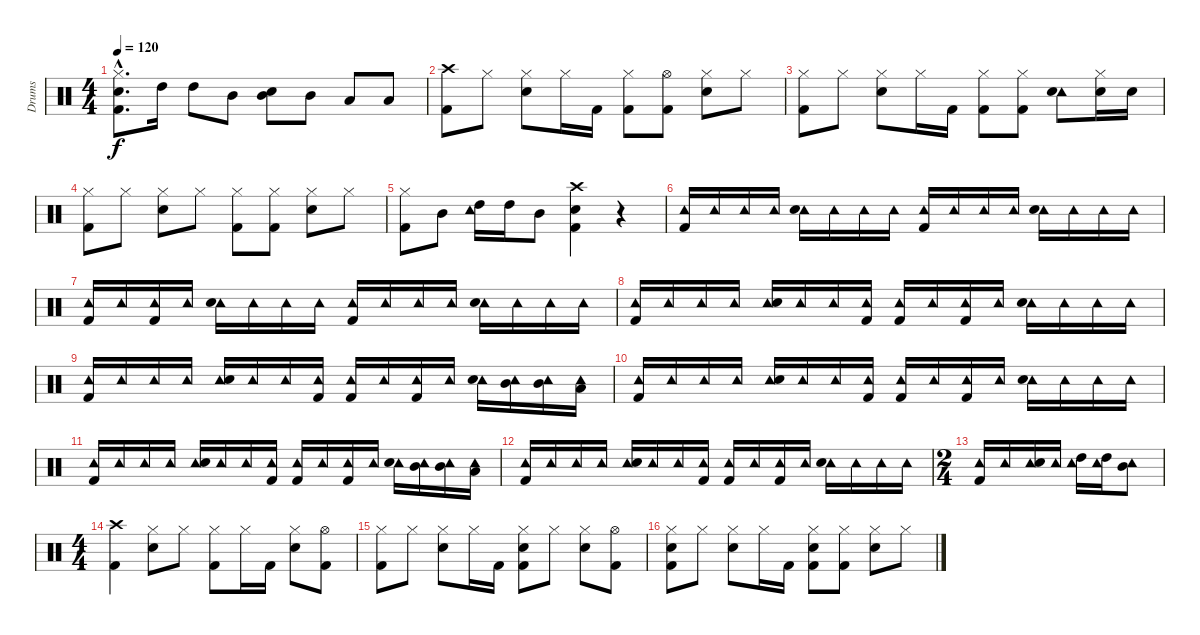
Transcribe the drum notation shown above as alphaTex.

\track ("Drums" "Drums") {instrument percussion}
\staff {score}
\articulation defaults
\ts (4 4)
\tempo 120
\clef neutral
\ks c
("Hi-Hat (closed)"{hac} "Snare (hit) 2"{hac} "Kick (hit) 2"{hac}).8{d dy f} "High Tom (hit)".16 "High Tom (hit)".8 "Mid Tom (hit)".8 ("Mid Tom (hit)" "Snare (hit) 2").8 "Mid Tom (hit)".8 "Low Tom (hit)".8 "Low Tom (hit)".8 |
("Crash high (hit)" "Kick (hit) 2").8 "Hi-Hat (closed)".8 ("Hi-Hat (closed)" "Snare (hit) 2").8 "Hi-Hat (closed)".16 "Kick (hit) 2".16 ("Hi-Hat (closed)" "Kick (hit) 2").8 ("Hi-Hat (open)" "Kick (hit) 2").8 ("Hi-Hat (closed)" "Snare (hit) 2").8 "Hi-Hat (closed)".8 |
("Hi-Hat (closed)" "Kick (hit) 2").8 "Hi-Hat (closed)".8 ("Hi-Hat (closed)" "Snare (hit) 2").8 "Hi-Hat (closed)".16 "Kick (hit) 2".16 ("Hi-Hat (closed)" "Kick (hit) 2").8 ("Hi-Hat (closed)" "Kick (hit) 2").8 ("Tambourine (hit)" "Snare (hit) 2").8 ("Hi-Hat (closed)" "Snare (hit) 2").16 "Snare (hit) 2".16 |
("Hi-Hat (closed)" "Kick (hit) 2").8 "Hi-Hat (closed)".8 ("Hi-Hat (closed)" "Snare (hit) 2").8 "Hi-Hat (closed)".8 ("Hi-Hat (closed)" "Kick (hit) 2").8 ("Hi-Hat (closed)" "Kick (hit) 2").8 ("Hi-Hat (closed)" "Snare (hit) 2").8 "Hi-Hat (closed)".8 |
("Hi-Hat (closed)" "Kick (hit) 2").8 "Mid Tom (hit)".8 ("Tambourine (hit)" "High Tom (hit)").16 "High Tom (hit)".16 "Mid Tom (hit)".8 ("Crash high (hit)" "Snare (hit) 2" "Kick (hit) 2").4 r.4 |
("Tambourine (hit)" "Kick (hit) 2").16 "Tambourine (hit)".16 "Tambourine (hit)".16 "Tambourine (hit)".16 ("Tambourine (hit)" "Snare (hit) 2").16 "Tambourine (hit)".16 "Tambourine (hit)".16 "Tambourine (hit)".16 ("Tambourine (hit)" "Kick (hit) 2").16 "Tambourine (hit)".16 "Tambourine (hit)".16 "Tambourine (hit)".16 ("Tambourine (hit)" "Snare (hit) 2").16 "Tambourine (hit)".16 "Tambourine (hit)".16 "Tambourine (hit)".16 |
("Tambourine (hit)" "Kick (hit) 2").16 "Tambourine (hit)".16 ("Tambourine (hit)" "Kick (hit) 2").16 "Tambourine (hit)".16 ("Tambourine (hit)" "Snare (hit) 2").16 "Tambourine (hit)".16 "Tambourine (hit)".16 "Tambourine (hit)".16 ("Tambourine (hit)" "Kick (hit) 2").16 "Tambourine (hit)".16 "Tambourine (hit)".16 "Tambourine (hit)".16 ("Tambourine (hit)" "Snare (hit) 2").16 "Tambourine (hit)".16 "Tambourine (hit)".16 "Tambourine (hit)".16 |
("Tambourine (hit)" "Kick (hit) 2").16 "Tambourine (hit)".16 "Tambourine (hit)".16 "Tambourine (hit)".16 ("Tambourine (hit)" "Snare (hit) 2").16 "Tambourine (hit)".16 "Tambourine (hit)".16 ("Tambourine (hit)" "Kick (hit) 2").16 ("Tambourine (hit)" "Kick (hit) 2").16 "Tambourine (hit)".16 ("Tambourine (hit)" "Kick (hit) 2").16 "Tambourine (hit)".16 ("Tambourine (hit)" "Snare (hit) 2").16 "Tambourine (hit)".16 "Tambourine (hit)".16 "Tambourine (hit)".16 |
("Tambourine (hit)" "Kick (hit) 2").16 "Tambourine (hit)".16 "Tambourine (hit)".16 "Tambourine (hit)".16 ("Tambourine (hit)" "Snare (hit) 2").16 "Tambourine (hit)".16 "Tambourine (hit)".16 ("Tambourine (hit)" "Kick (hit) 2").16 ("Tambourine (hit)" "Kick (hit) 2").16 "Tambourine (hit)".16 ("Tambourine (hit)" "Kick (hit) 2").16 "Tambourine (hit)".16 ("Tambourine (hit)" "Snare (hit) 2").16 ("Tambourine (hit)" "Mid Tom (hit)").16 ("Tambourine (hit)" "Mid Tom (hit)").16 ("Tambourine (hit)" "Low Tom (hit)").16 |
("Tambourine (hit)" "Kick (hit) 2").16 "Tambourine (hit)".16 "Tambourine (hit)".16 "Tambourine (hit)".16 ("Tambourine (hit)" "Snare (hit) 2").16 "Tambourine (hit)".16 "Tambourine (hit)".16 ("Tambourine (hit)" "Kick (hit) 2").16 ("Tambourine (hit)" "Kick (hit) 2").16 "Tambourine (hit)".16 ("Tambourine (hit)" "Kick (hit) 2").16 "Tambourine (hit)".16 ("Tambourine (hit)" "Snare (hit) 2").16 "Tambourine (hit)".16 "Tambourine (hit)".16 "Tambourine (hit)".16 |
("Tambourine (hit)" "Kick (hit) 2").16 "Tambourine (hit)".16 "Tambourine (hit)".16 "Tambourine (hit)".16 ("Tambourine (hit)" "Snare (hit) 2").16 "Tambourine (hit)".16 "Tambourine (hit)".16 ("Tambourine (hit)" "Kick (hit) 2").16 ("Tambourine (hit)" "Kick (hit) 2").16 "Tambourine (hit)".16 ("Tambourine (hit)" "Kick (hit) 2").16 "Tambourine (hit)".16 ("Tambourine (hit)" "Snare (hit) 2").16 ("Tambourine (hit)" "Mid Tom (hit)").16 ("Tambourine (hit)" "Mid Tom (hit)").16 ("Tambourine (hit)" "Low Tom (hit)").16 |
("Tambourine (hit)" "Kick (hit) 2").16 "Tambourine (hit)".16 "Tambourine (hit)".16 "Tambourine (hit)".16 ("Tambourine (hit)" "Snare (hit) 2").16 "Tambourine (hit)".16 "Tambourine (hit)".16 ("Tambourine (hit)" "Kick (hit) 2").16 ("Tambourine (hit)" "Kick (hit) 2").16 "Tambourine (hit)".16 ("Tambourine (hit)" "Kick (hit) 2").16 "Tambourine (hit)".16 ("Tambourine (hit)" "Snare (hit) 2").16 "Tambourine (hit)".16 "Tambourine (hit)".16 "Tambourine (hit)".16 |
\ts (2 4)
("Tambourine (hit)" "Kick (hit) 2").16 "Tambourine (hit)".16 ("Tambourine (hit)" "Snare (hit) 2").16 "Tambourine (hit)".16 ("Tambourine (hit)" "High Tom (hit)").16 ("Tambourine (hit)" "High Tom (hit)").16 ("Tambourine (hit)" "Mid Tom (hit)").8 |
\ts (4 4)
("Crash high (hit)" "Kick (hit) 2").4 ("Hi-Hat (closed)" "Snare (hit) 2").8 "Hi-Hat (closed)".8 ("Hi-Hat (closed)" "Kick (hit) 2").8 "Hi-Hat (closed)".16 "Kick (hit) 2".16 ("Hi-Hat (closed)" "Snare (hit) 2").8 ("Hi-Hat (open)" "Kick (hit) 2").8 |
("Hi-Hat (closed)" "Kick (hit) 2").8 "Hi-Hat (closed)".8 ("Hi-Hat (closed)" "Snare (hit) 2").8 "Hi-Hat (closed)".16 "Kick (hit) 2".16 ("Hi-Hat (closed)" "Snare (hit) 2" "Kick (hit) 2").8 "Hi-Hat (closed)".8 ("Hi-Hat (closed)" "Snare (hit) 2").8 ("Hi-Hat (open)" "Kick (hit) 2").8 |
("Hi-Hat (closed)" "Snare (hit) 2" "Kick (hit) 2").8 "Hi-Hat (closed)".8 ("Hi-Hat (closed)" "Snare (hit) 2").8 "Hi-Hat (closed)".16 "Kick (hit) 2".16 ("Hi-Hat (closed)" "Snare (hit) 2" "Kick (hit) 2").8 ("Hi-Hat (closed)" "Kick (hit) 2").8 ("Hi-Hat (closed)" "Snare (hit) 2").8 "Hi-Hat (closed)".8
